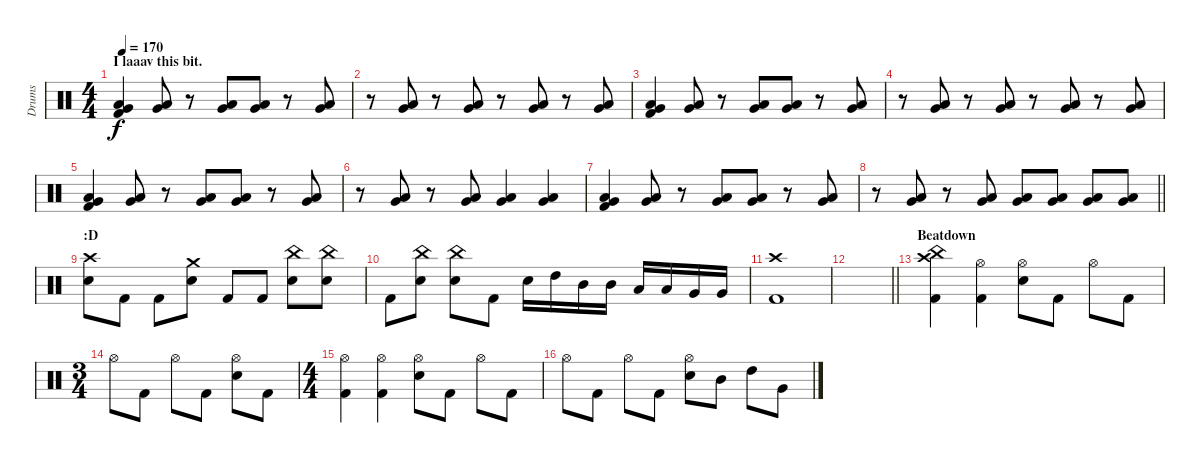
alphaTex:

\track ("Drums" "Drums") {instrument percussion}
\staff {score}
\articulation defaults
\ts (4 4)
\section ("" "I laaav this bit.")
\tempo 170
\clef neutral
\ks c
("Low Floor Tom (hit)" "Very Low Tom (hit)" "Kick (hit) 2").4{dy f} ("Low Floor Tom (hit)" "Very Low Tom (hit)").8 r.8 ("Low Floor Tom (hit)" "Very Low Tom (hit)").8 ("Low Floor Tom (hit)" "Very Low Tom (hit)").8 r.8 ("Low Floor Tom (hit)" "Very Low Tom (hit)").8 |
r.8 ("Low Floor Tom (hit)" "Very Low Tom (hit)").8 r.8 ("Low Floor Tom (hit)" "Very Low Tom (hit)").8 r.8 ("Low Floor Tom (hit)" "Very Low Tom (hit)").8 r.8 ("Low Floor Tom (hit)" "Very Low Tom (hit)").8 |
("Low Floor Tom (hit)" "Very Low Tom (hit)" "Kick (hit) 2").4 ("Low Floor Tom (hit)" "Very Low Tom (hit)").8 r.8 ("Low Floor Tom (hit)" "Very Low Tom (hit)").8 ("Low Floor Tom (hit)" "Very Low Tom (hit)").8 r.8 ("Low Floor Tom (hit)" "Very Low Tom (hit)").8 |
r.8 ("Low Floor Tom (hit)" "Very Low Tom (hit)").8 r.8 ("Low Floor Tom (hit)" "Very Low Tom (hit)").8 r.8 ("Low Floor Tom (hit)" "Very Low Tom (hit)").8 r.8 ("Low Floor Tom (hit)" "Very Low Tom (hit)").8 |
("Low Floor Tom (hit)" "Very Low Tom (hit)" "Kick (hit) 2").4 ("Low Floor Tom (hit)" "Very Low Tom (hit)").8 r.8 ("Low Floor Tom (hit)" "Very Low Tom (hit)").8 ("Low Floor Tom (hit)" "Very Low Tom (hit)").8 r.8 ("Low Floor Tom (hit)" "Very Low Tom (hit)").8 |
r.8 ("Low Floor Tom (hit)" "Very Low Tom (hit)").8 r.8 ("Low Floor Tom (hit)" "Very Low Tom (hit)").8 ("Low Floor Tom (hit)" "Very Low Tom (hit)").4 ("Low Floor Tom (hit)" "Very Low Tom (hit)").4 |
("Low Floor Tom (hit)" "Very Low Tom (hit)" "Kick (hit) 2").4 ("Low Floor Tom (hit)" "Very Low Tom (hit)").8 r.8 ("Low Floor Tom (hit)" "Very Low Tom (hit)").8 ("Low Floor Tom (hit)" "Very Low Tom (hit)").8 r.8 ("Low Floor Tom (hit)" "Very Low Tom (hit)").8 |
\barLineRight lightlight
r.8 ("Low Floor Tom (hit)" "Very Low Tom (hit)").8 r.8 ("Low Floor Tom (hit)" "Very Low Tom (hit)").8 ("Low Floor Tom (hit)" "Very Low Tom (hit)").8 ("Low Floor Tom (hit)" "Very Low Tom (hit)").8 ("Low Floor Tom (hit)" "Very Low Tom (hit)").8 ("Low Floor Tom (hit)" "Very Low Tom (hit)").8 |
\section ("" ":D")
("Crash high (hit)" "Electric Snare (hit)").8 "Kick (hit) 2".8 "Kick (hit) 2".8 ("Crash medium (hit)" "Electric Snare (hit)").8 "Kick (hit) 2".8 "Kick (hit) 2".8 ("China (hit)" "Electric Snare (hit)").8 ("China (hit)" "Electric Snare (hit)").8 |
"Kick (hit) 2".8 ("China (hit)" "Electric Snare (hit)").8 ("China (hit)" "Electric Snare (hit)").8 "Kick (hit) 2".8 "Electric Snare (hit)".16 "High Tom (hit)".16 "Mid Tom (hit)".16 "Mid Tom (hit)".16 "Low Tom (hit)".16 "Low Tom (hit)".16 "Very Low Tom (hit)".16 "Very Low Tom (hit)".16 |
("Crash high (hit)" "Kick (hit) 2").1 |
\barLineRight lightlight
|
\section ("" "Beatdown")
("China (hit)" "Crash high (hit)" "Kick (hit) 2").4{volume 13} ("Hi-Hat (open)" "Kick (hit) 2").4 ("Hi-Hat (open)" "Electric Snare (hit)").8 "Kick (hit) 2".8 "Hi-Hat (open)".8 "Kick (hit) 2".8 |
\ts (3 4)
"Hi-Hat (open)".8 "Kick (hit) 2".8 "Hi-Hat (open)".8 "Kick (hit) 2".8 ("Hi-Hat (open)" "Electric Snare (hit)").8 "Kick (hit) 2".8 |
\ts (4 4)
("Hi-Hat (open)" "Kick (hit) 2").4 ("Hi-Hat (open)" "Kick (hit) 2").4 ("Hi-Hat (open)" "Electric Snare (hit)").8 "Kick (hit) 2".8 "Hi-Hat (open)".8 "Kick (hit) 2".8 |
"Hi-Hat (open)".8 "Kick (hit) 2".8 "Hi-Hat (open)".8 "Kick (hit) 2".8 ("Hi-Hat (open)" "Electric Snare (hit)").8 "Mid Tom (hit)".8 "High Tom (hit)".8 "Very Low Tom (hit)".8
